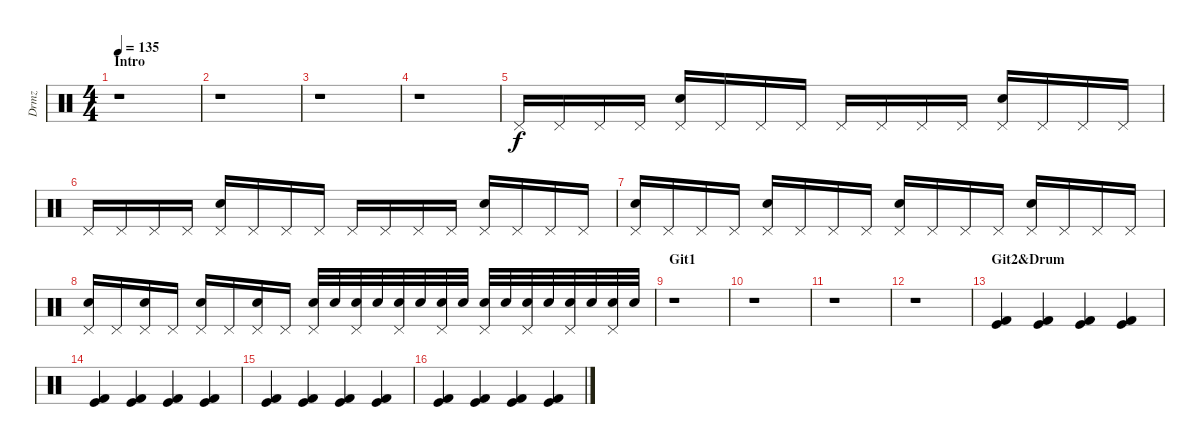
\track ("Drmz" "Drmz") {instrument percussion}
\staff {score}
\articulation defaults
\ts (4 4)
\section ("" "Intro")
\tempo 135
\clef neutral
\ks c
r.1{dy f} |
r.1 |
r.1 |
r.1 |
"Pedal Hi-Hat (hit)".16 "Pedal Hi-Hat (hit)".16 "Pedal Hi-Hat (hit)".16 "Pedal Hi-Hat (hit)".16 ("Pedal Hi-Hat (hit)" "Electric Snare (hit)").16 "Pedal Hi-Hat (hit)".16 "Pedal Hi-Hat (hit)".16 "Pedal Hi-Hat (hit)".16 "Pedal Hi-Hat (hit)".16 "Pedal Hi-Hat (hit)".16 "Pedal Hi-Hat (hit)".16 "Pedal Hi-Hat (hit)".16 ("Pedal Hi-Hat (hit)" "Electric Snare (hit)").16 "Pedal Hi-Hat (hit)".16 "Pedal Hi-Hat (hit)".16 "Pedal Hi-Hat (hit)".16 |
"Pedal Hi-Hat (hit)".16 "Pedal Hi-Hat (hit)".16 "Pedal Hi-Hat (hit)".16 "Pedal Hi-Hat (hit)".16 ("Pedal Hi-Hat (hit)" "Electric Snare (hit)").16 "Pedal Hi-Hat (hit)".16 "Pedal Hi-Hat (hit)".16 "Pedal Hi-Hat (hit)".16 "Pedal Hi-Hat (hit)".16 "Pedal Hi-Hat (hit)".16 "Pedal Hi-Hat (hit)".16 "Pedal Hi-Hat (hit)".16 ("Pedal Hi-Hat (hit)" "Electric Snare (hit)").16 "Pedal Hi-Hat (hit)".16 "Pedal Hi-Hat (hit)".16 "Pedal Hi-Hat (hit)".16 |
("Pedal Hi-Hat (hit)" "Electric Snare (hit)").16 "Pedal Hi-Hat (hit)".16 "Pedal Hi-Hat (hit)".16 "Pedal Hi-Hat (hit)".16 ("Pedal Hi-Hat (hit)" "Electric Snare (hit)").16 "Pedal Hi-Hat (hit)".16 "Pedal Hi-Hat (hit)".16 "Pedal Hi-Hat (hit)".16 ("Pedal Hi-Hat (hit)" "Electric Snare (hit)").16 "Pedal Hi-Hat (hit)".16 "Pedal Hi-Hat (hit)".16 "Pedal Hi-Hat (hit)".16 ("Pedal Hi-Hat (hit)" "Electric Snare (hit)").16 "Pedal Hi-Hat (hit)".16 "Pedal Hi-Hat (hit)".16 "Pedal Hi-Hat (hit)".16 |
("Pedal Hi-Hat (hit)" "Electric Snare (hit)").16 "Pedal Hi-Hat (hit)".16 ("Pedal Hi-Hat (hit)" "Electric Snare (hit)").16 "Pedal Hi-Hat (hit)".16 ("Pedal Hi-Hat (hit)" "Electric Snare (hit)").16 "Pedal Hi-Hat (hit)".16 ("Pedal Hi-Hat (hit)" "Electric Snare (hit)").16 "Pedal Hi-Hat (hit)".16 ("Pedal Hi-Hat (hit)" "Electric Snare (hit)").32 "Electric Snare (hit)".32 ("Pedal Hi-Hat (hit)" "Electric Snare (hit)").32 "Electric Snare (hit)".32 ("Pedal Hi-Hat (hit)" "Electric Snare (hit)").32 "Electric Snare (hit)".32 ("Pedal Hi-Hat (hit)" "Electric Snare (hit)").32 "Electric Snare (hit)".32 ("Pedal Hi-Hat (hit)" "Electric Snare (hit)").32 "Electric Snare (hit)".32 ("Pedal Hi-Hat (hit)" "Electric Snare (hit)").32 "Electric Snare (hit)".32 ("Pedal Hi-Hat (hit)" "Electric Snare (hit)").32 "Electric Snare (hit)".32 ("Pedal Hi-Hat (hit)" "Electric Snare (hit)").32 "Electric Snare (hit)".32 |
\section ("" "Git1")
r.1 |
r.1 |
r.1 |
r.1 |
\section ("" "Git2&Drum")
("Kick (hit) 2" "Kick (hit)").4 ("Kick (hit)" "Kick (hit) 2").4 ("Kick (hit) 2" "Kick (hit)").4 ("Kick (hit) 2" "Kick (hit)").4 |
("Kick (hit) 2" "Kick (hit)").4 ("Kick (hit) 2" "Kick (hit)").4 ("Kick (hit) 2" "Kick (hit)").4 ("Kick (hit) 2" "Kick (hit)").4 |
("Kick (hit) 2" "Kick (hit)").4 ("Kick (hit)" "Kick (hit) 2").4 ("Kick (hit) 2" "Kick (hit)").4 ("Kick (hit) 2" "Kick (hit)").4 |
("Kick (hit) 2" "Kick (hit)").4 ("Kick (hit) 2" "Kick (hit)").4 ("Kick (hit) 2" "Kick (hit)").4 ("Kick (hit) 2" "Kick (hit)").4
